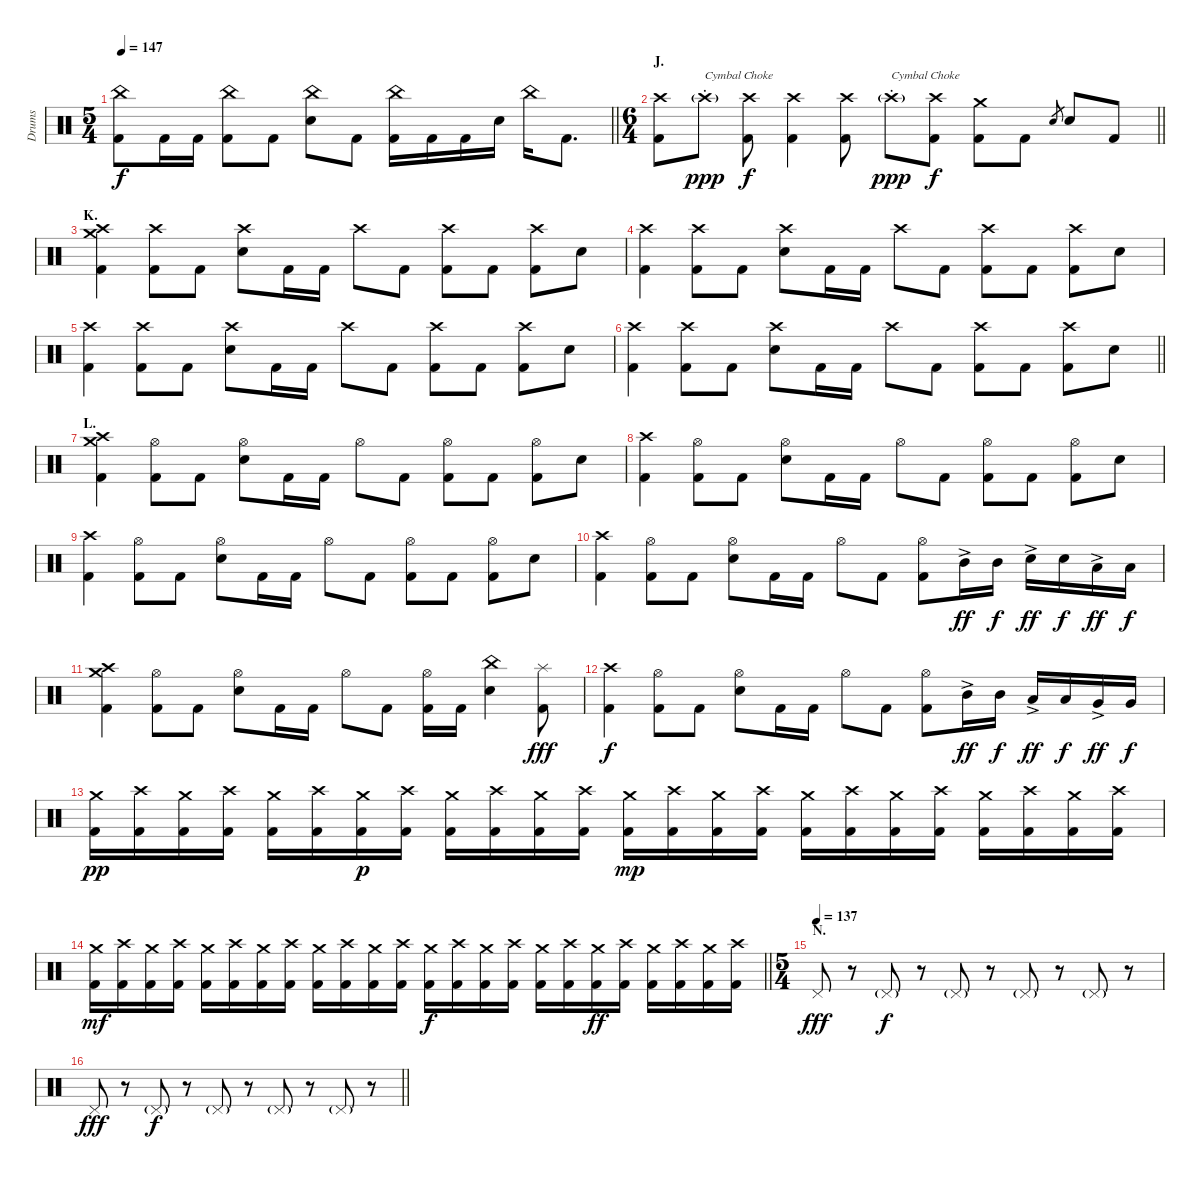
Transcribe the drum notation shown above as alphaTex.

\track ("Drums" "Drums") {instrument percussion}
\staff {score}
\articulation defaults
\ts (5 4)
\tempo 147
\clef neutral
\barLineRight lightlight
\ks c
("China (hit)" "Kick (hit) 2").8{dy f} "Kick (hit) 2".16 "Kick (hit) 2".16 ("China (hit)" "Kick (hit) 2").8 "Kick (hit) 2".8 ("China (hit)" "Electric Snare (hit)").8 "Kick (hit) 2".8 ("China (hit)" "Kick (hit) 2").16 "Kick (hit) 2".16 "Kick (hit) 2".16 "Electric Snare (hit)".16 "China (hit)".16 "Kick (hit) 2".8{d} |
\ts (6 4)
\section ("" "J.")
\barLineRight lightlight
("Crash high (hit)" "Kick (hit) 2").8 "Crash high (hit)"{g st}.8{txt "Cymbal Choke" dy ppp} ("Crash high (hit)" "Kick (hit) 2").8{dy f} ("Crash high (hit)" "Kick (hit) 2").4 ("Crash high (hit)" "Kick (hit) 2").8 "Crash high (hit)"{g st}.8{txt "Cymbal Choke" dy ppp} ("Crash high (hit)" "Kick (hit) 2").8{dy f} ("Crash medium (hit)" "Kick (hit) 2").8 "Kick (hit) 2".8 "Electric Snare (hit)".8{gr} "Electric Snare (hit)".8 "Kick (hit) 2".8 |
\section ("" "K.")
("Crash medium (hit)" "Crash high (hit)" "Kick (hit) 2").4 ("Crash high (hit)" "Kick (hit) 2").8 "Kick (hit) 2".8 ("Crash high (hit)" "Electric Snare (hit)").8 "Kick (hit) 2".16 "Kick (hit) 2".16 "Crash high (hit)".8 "Kick (hit) 2".8 ("Crash high (hit)" "Kick (hit) 2").8 "Kick (hit) 2".8 ("Crash high (hit)" "Kick (hit) 2").8 "Electric Snare (hit)".8 |
("Crash high (hit)" "Kick (hit) 2").4 ("Crash high (hit)" "Kick (hit) 2").8 "Kick (hit) 2".8 ("Crash high (hit)" "Electric Snare (hit)").8 "Kick (hit) 2".16 "Kick (hit) 2".16 "Crash high (hit)".8 "Kick (hit) 2".8 ("Crash high (hit)" "Kick (hit) 2").8 "Kick (hit) 2".8 ("Crash high (hit)" "Kick (hit) 2").8 "Electric Snare (hit)".8 |
("Crash high (hit)" "Kick (hit) 2").4 ("Crash high (hit)" "Kick (hit) 2").8 "Kick (hit) 2".8 ("Crash high (hit)" "Electric Snare (hit)").8 "Kick (hit) 2".16 "Kick (hit) 2".16 "Crash high (hit)".8 "Kick (hit) 2".8 ("Crash high (hit)" "Kick (hit) 2").8 "Kick (hit) 2".8 ("Crash high (hit)" "Kick (hit) 2").8 "Electric Snare (hit)".8 |
\barLineRight lightlight
("Crash high (hit)" "Kick (hit) 2").4 ("Crash high (hit)" "Kick (hit) 2").8 "Kick (hit) 2".8 ("Crash high (hit)" "Electric Snare (hit)").8 "Kick (hit) 2".16 "Kick (hit) 2".16 "Crash high (hit)".8 "Kick (hit) 2".8 ("Crash high (hit)" "Kick (hit) 2").8 "Kick (hit) 2".8 ("Crash high (hit)" "Kick (hit) 2").8 "Electric Snare (hit)".8 |
\section ("" "L.")
("Crash medium (hit)" "Crash high (hit)" "Kick (hit) 2").4 ("Hi-Hat (open)" "Kick (hit) 2").8 "Kick (hit) 2".8 ("Hi-Hat (open)" "Electric Snare (hit)").8 "Kick (hit) 2".16 "Kick (hit) 2".16 "Hi-Hat (open)".8 "Kick (hit) 2".8 ("Hi-Hat (open)" "Kick (hit) 2").8 "Kick (hit) 2".8 ("Hi-Hat (open)" "Kick (hit) 2").8 "Electric Snare (hit)".8 |
("Crash high (hit)" "Kick (hit) 2").4 ("Hi-Hat (open)" "Kick (hit) 2").8 "Kick (hit) 2".8 ("Hi-Hat (open)" "Electric Snare (hit)").8 "Kick (hit) 2".16 "Kick (hit) 2".16 "Hi-Hat (open)".8 "Kick (hit) 2".8 ("Hi-Hat (open)" "Kick (hit) 2").8 "Kick (hit) 2".8 ("Hi-Hat (open)" "Kick (hit) 2").8 "Electric Snare (hit)".8 |
("Crash high (hit)" "Kick (hit) 2").4 ("Hi-Hat (open)" "Kick (hit) 2").8 "Kick (hit) 2".8 ("Hi-Hat (open)" "Electric Snare (hit)").8 "Kick (hit) 2".16 "Kick (hit) 2".16 "Hi-Hat (open)".8 "Kick (hit) 2".8 ("Hi-Hat (open)" "Kick (hit) 2").8 "Kick (hit) 2".8 ("Hi-Hat (open)" "Kick (hit) 2").8 "Electric Snare (hit)".8 |
("Crash high (hit)" "Kick (hit) 2").4 ("Hi-Hat (open)" "Kick (hit) 2").8 "Kick (hit) 2".8 ("Hi-Hat (open)" "Electric Snare (hit)").8 "Kick (hit) 2".16 "Kick (hit) 2".16 "Hi-Hat (open)".8 "Kick (hit) 2".8 ("Hi-Hat (open)" "Kick (hit) 2").8 "Mid Tom (hit)"{ac}.16{dy ff} "Mid Tom (hit)".16{dy f} "Electric Snare (hit)"{ac}.16{dy ff} "Electric Snare (hit)".16{dy f} "Low Tom (hit)"{ac}.16{dy ff} "Low Tom (hit)".16{dy f} |
("Crash medium (hit)" "Crash high (hit)" "Kick (hit) 2").4 ("Hi-Hat (open)" "Kick (hit) 2").8 "Kick (hit) 2".8 ("Hi-Hat (open)" "Electric Snare (hit)").8 "Kick (hit) 2".16 "Kick (hit) 2".16 "Hi-Hat (open)".8 "Kick (hit) 2".8 ("Hi-Hat (open)" "Kick (hit) 2").16 "Kick (hit) 2".16 ("China (hit)" "Electric Snare (hit)").4 ("Splash (hit)" "Kick (hit) 2").8{dy fff} |
("Crash high (hit)" "Kick (hit) 2").4{dy f} ("Hi-Hat (open)" "Kick (hit) 2").8 "Kick (hit) 2".8 ("Hi-Hat (open)" "Electric Snare (hit)").8 "Kick (hit) 2".16 "Kick (hit) 2".16 "Hi-Hat (open)".8 "Kick (hit) 2".8 ("Hi-Hat (open)" "Kick (hit) 2").8 "Mid Tom (hit)"{ac}.16{dy ff} "Mid Tom (hit)".16{dy f} "Low Tom (hit)"{ac}.16{dy ff} "Low Tom (hit)".16{dy f} "Very Low Tom (hit)"{ac}.16{dy ff} "Very Low Tom (hit)".16{dy f} |
("Crash medium (hit)" "Kick (hit) 2").16{dy pp} ("Crash high (hit)" "Kick (hit) 2").16 ("Crash medium (hit)" "Kick (hit) 2").16 ("Crash high (hit)" "Kick (hit) 2").16 ("Crash medium (hit)" "Kick (hit) 2").16 ("Crash high (hit)" "Kick (hit) 2").16 ("Crash medium (hit)" "Kick (hit) 2").16{dy p} ("Crash high (hit)" "Kick (hit) 2").16 ("Crash medium (hit)" "Kick (hit) 2").16 ("Crash high (hit)" "Kick (hit) 2").16 ("Crash medium (hit)" "Kick (hit) 2").16 ("Crash high (hit)" "Kick (hit) 2").16 ("Crash medium (hit)" "Kick (hit) 2").16{dy mp} ("Crash high (hit)" "Kick (hit) 2").16 ("Crash medium (hit)" "Kick (hit) 2").16 ("Crash high (hit)" "Kick (hit) 2").16 ("Crash medium (hit)" "Kick (hit) 2").16 ("Crash high (hit)" "Kick (hit) 2").16 ("Crash medium (hit)" "Kick (hit) 2").16 ("Crash high (hit)" "Kick (hit) 2").16 ("Crash medium (hit)" "Kick (hit) 2").16 ("Crash high (hit)" "Kick (hit) 2").16 ("Crash medium (hit)" "Kick (hit) 2").16 ("Crash high (hit)" "Kick (hit) 2").16 |
\barLineRight lightlight
("Crash medium (hit)" "Kick (hit) 2").16{dy mf} ("Crash high (hit)" "Kick (hit) 2").16 ("Crash medium (hit)" "Kick (hit) 2").16 ("Crash high (hit)" "Kick (hit) 2").16 ("Crash medium (hit)" "Kick (hit) 2").16 ("Crash high (hit)" "Kick (hit) 2").16 ("Crash medium (hit)" "Kick (hit) 2").16 ("Crash high (hit)" "Kick (hit) 2").16 ("Crash medium (hit)" "Kick (hit) 2").16 ("Crash high (hit)" "Kick (hit) 2").16 ("Crash medium (hit)" "Kick (hit) 2").16 ("Crash high (hit)" "Kick (hit) 2").16 ("Crash medium (hit)" "Kick (hit) 2").16{dy f} ("Crash high (hit)" "Kick (hit) 2").16 ("Crash medium (hit)" "Kick (hit) 2").16 ("Crash high (hit)" "Kick (hit) 2").16 ("Crash medium (hit)" "Kick (hit) 2").16 ("Crash high (hit)" "Kick (hit) 2").16 ("Crash medium (hit)" "Kick (hit) 2").16{dy ff} ("Crash high (hit)" "Kick (hit) 2").16 ("Crash medium (hit)" "Kick (hit) 2").16 ("Crash high (hit)" "Kick (hit) 2").16 ("Crash medium (hit)" "Kick (hit) 2").16 ("Crash high (hit)" "Kick (hit) 2").16 |
\ts (5 4)
\section ("" "N.")
\tempo (137)
"Pedal Hi-Hat (hit)".8{dy fff} r.8 "Pedal Hi-Hat (hit)"{g}.8{dy f} r.8 "Pedal Hi-Hat (hit)"{g}.8 r.8 "Pedal Hi-Hat (hit)"{g}.8 r.8 "Pedal Hi-Hat (hit)"{g}.8 r.8 |
\barLineRight lightlight "Pedal Hi-Hat (hit)".8{dy fff}
r.8 "Pedal Hi-Hat (hit)"{g}.8{dy f} r.8 "Pedal Hi-Hat (hit)"{g}.8 r.8 "Pedal Hi-Hat (hit)"{g}.8 r.8 "Pedal Hi-Hat (hit)"{g}.8 r.8
